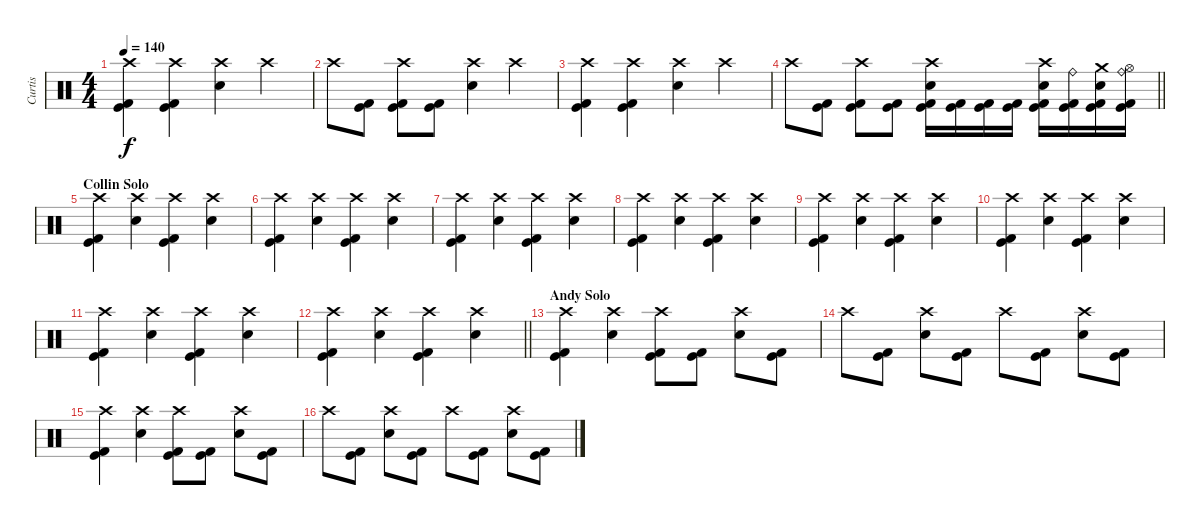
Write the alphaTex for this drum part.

\track ("Curtis" "Curtis") {instrument percussion}
\staff {score}
\articulation defaults
\ts (4 4)
\tempo 140
\clef neutral
\ks c
("Crash high (hit)" "Kick (hit) 2" "Kick (hit)").4{dy f} ("Crash high (hit)" "Kick (hit) 2" "Kick (hit)").4 ("Crash high (hit)" "Electric Snare (hit)").4 "Crash high (hit)".4 |
"Crash high (hit)".8 ("Kick (hit) 2" "Kick (hit)").8 ("Crash high (hit)" "Kick (hit) 2" "Kick (hit)").8 ("Kick (hit) 2" "Kick (hit)").8 ("Crash high (hit)" "Electric Snare (hit)").4 "Crash high (hit)".4 |
("Crash high (hit)" "Kick (hit) 2" "Kick (hit)").4 ("Crash high (hit)" "Kick (hit) 2" "Kick (hit)").4 ("Crash high (hit)" "Electric Snare (hit)").4 "Crash high (hit)".4 |
\barLineRight lightlight "Crash high (hit)".8
("Kick (hit) 2" "Kick (hit)").8 ("Crash high (hit)" "Kick (hit) 2" "Kick (hit)").8 ("Kick (hit) 2" "Kick (hit)").8 ("Electric Snare (hit)" "Crash high (hit)" "Kick (hit)" "Kick (hit) 2").16 ("Kick (hit)" "Kick (hit) 2").16 ("Kick (hit)" "Kick (hit) 2").16 ("Kick (hit)" "Kick (hit) 2").16 ("Electric Snare (hit)" "Crash high (hit)" "Kick (hit)" "Kick (hit) 2").16 ("Ride (bell)" "Kick (hit)" "Kick (hit) 2").16 ("Electric Snare (hit)" "Crash medium (hit)" "Kick (hit)" "Kick (hit) 2").16 ("Ride (bell)" "Hi-Hat (open)" "Kick (hit)" "Kick (hit) 2").16 |
\section ("" "Collin Solo")
("Crash high (hit)" "Kick (hit) 2" "Kick (hit)").4 ("Crash high (hit)" "Electric Snare (hit)").4 ("Crash high (hit)" "Kick (hit) 2" "Kick (hit)").4 ("Crash high (hit)" "Electric Snare (hit)").4 |
("Crash high (hit)" "Kick (hit) 2" "Kick (hit)").4 ("Crash high (hit)" "Electric Snare (hit)").4 ("Crash high (hit)" "Kick (hit) 2" "Kick (hit)").4 ("Crash high (hit)" "Electric Snare (hit)").4 |
("Crash high (hit)" "Kick (hit) 2" "Kick (hit)").4 ("Crash high (hit)" "Electric Snare (hit)").4 ("Crash high (hit)" "Kick (hit) 2" "Kick (hit)").4 ("Crash high (hit)" "Electric Snare (hit)").4 |
("Crash high (hit)" "Kick (hit) 2" "Kick (hit)").4 ("Crash high (hit)" "Electric Snare (hit)").4 ("Crash high (hit)" "Kick (hit) 2" "Kick (hit)").4 ("Crash high (hit)" "Electric Snare (hit)").4 |
("Crash high (hit)" "Kick (hit) 2" "Kick (hit)").4 ("Crash high (hit)" "Electric Snare (hit)").4 ("Crash high (hit)" "Kick (hit) 2" "Kick (hit)").4 ("Crash high (hit)" "Electric Snare (hit)").4 |
("Crash high (hit)" "Kick (hit) 2" "Kick (hit)").4 ("Crash high (hit)" "Electric Snare (hit)").4 ("Crash high (hit)" "Kick (hit) 2" "Kick (hit)").4 ("Crash high (hit)" "Electric Snare (hit)").4 |
("Crash high (hit)" "Kick (hit) 2" "Kick (hit)").4 ("Crash high (hit)" "Electric Snare (hit)").4 ("Crash high (hit)" "Kick (hit) 2" "Kick (hit)").4 ("Crash high (hit)" "Electric Snare (hit)").4 |
\barLineRight lightlight
("Crash high (hit)" "Kick (hit) 2" "Kick (hit)").4 ("Crash high (hit)" "Electric Snare (hit)").4 ("Crash high (hit)" "Kick (hit) 2" "Kick (hit)").4 ("Crash high (hit)" "Electric Snare (hit)").4 |
\section ("" "Andy Solo")
("Crash high (hit)" "Kick (hit) 2" "Kick (hit)").4 ("Crash high (hit)" "Electric Snare (hit)").4 ("Crash high (hit)" "Kick (hit) 2" "Kick (hit)").8 ("Kick (hit) 2" "Kick (hit)").8 ("Crash high (hit)" "Electric Snare (hit)").8 ("Kick (hit) 2" "Kick (hit)").8 |
"Crash high (hit)".8 ("Kick (hit) 2" "Kick (hit)").8 ("Crash high (hit)" "Electric Snare (hit)").8 ("Kick (hit) 2" "Kick (hit)").8 "Crash high (hit)".8 ("Kick (hit) 2" "Kick (hit)").8 ("Crash high (hit)" "Electric Snare (hit)").8 ("Kick (hit) 2" "Kick (hit)").8 |
("Crash high (hit)" "Kick (hit) 2" "Kick (hit)").4 ("Crash high (hit)" "Electric Snare (hit)").4 ("Crash high (hit)" "Kick (hit) 2" "Kick (hit)").8 ("Kick (hit) 2" "Kick (hit)").8 ("Crash high (hit)" "Electric Snare (hit)").8 ("Kick (hit) 2" "Kick (hit)").8 |
"Crash high (hit)".8 ("Kick (hit) 2" "Kick (hit)").8 ("Crash high (hit)" "Electric Snare (hit)").8 ("Kick (hit) 2" "Kick (hit)").8 "Crash high (hit)".8 ("Kick (hit) 2" "Kick (hit)").8 ("Crash high (hit)" "Electric Snare (hit)").8 ("Kick (hit) 2" "Kick (hit)").8
